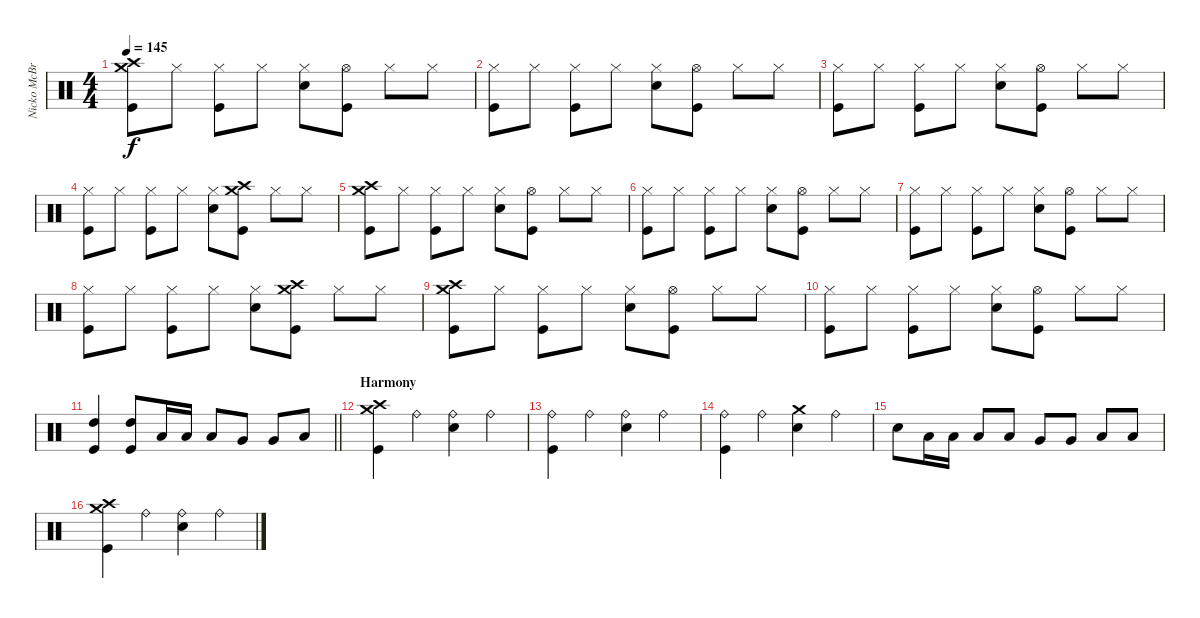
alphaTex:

\track ("Nicko McBrain" "Nicko McBr") {instrument percussion}
\staff {score}
\articulation defaults
\ts (4 4)
\tempo 145
\clef neutral
\ks c
("Crash medium (hit)" "Crash high (hit)" "Kick (hit)").8{dy f} "Hi-Hat (closed)".8 ("Hi-Hat (closed)" "Kick (hit)").8 "Hi-Hat (closed)".8 ("Hi-Hat (closed)" "Snare (hit) 2").8 ("Hi-Hat (open)" "Kick (hit)").8 "Hi-Hat (closed)".8 "Hi-Hat (closed)".8 |
("Hi-Hat (closed)" "Kick (hit)").8 "Hi-Hat (closed)".8 ("Hi-Hat (closed)" "Kick (hit)").8 "Hi-Hat (closed)".8 ("Hi-Hat (closed)" "Snare (hit) 2").8 ("Hi-Hat (open)" "Kick (hit)").8 "Hi-Hat (closed)".8 "Hi-Hat (closed)".8 |
("Hi-Hat (closed)" "Kick (hit)").8 "Hi-Hat (closed)".8 ("Hi-Hat (closed)" "Kick (hit)").8 "Hi-Hat (closed)".8 ("Hi-Hat (closed)" "Snare (hit) 2").8 ("Hi-Hat (open)" "Kick (hit)").8 "Hi-Hat (closed)".8 "Hi-Hat (closed)".8 |
("Hi-Hat (closed)" "Kick (hit)").8 "Hi-Hat (closed)".8 ("Hi-Hat (closed)" "Kick (hit)").8 "Hi-Hat (closed)".8 ("Hi-Hat (closed)" "Snare (hit) 2").8 ("Crash medium (hit)" "Crash high (hit)" "Kick (hit)").8 "Hi-Hat (closed)".8 "Hi-Hat (closed)".8 |
("Crash medium (hit)" "Crash high (hit)" "Kick (hit)").8 "Hi-Hat (closed)".8 ("Hi-Hat (closed)" "Kick (hit)").8 "Hi-Hat (closed)".8 ("Hi-Hat (closed)" "Snare (hit) 2").8 ("Hi-Hat (open)" "Kick (hit)").8 "Hi-Hat (closed)".8 "Hi-Hat (closed)".8 |
("Hi-Hat (closed)" "Kick (hit)").8 "Hi-Hat (closed)".8 ("Hi-Hat (closed)" "Kick (hit)").8 "Hi-Hat (closed)".8 ("Hi-Hat (closed)" "Snare (hit) 2").8 ("Hi-Hat (open)" "Kick (hit)").8 "Hi-Hat (closed)".8 "Hi-Hat (closed)".8 |
("Hi-Hat (closed)" "Kick (hit)").8 "Hi-Hat (closed)".8 ("Hi-Hat (closed)" "Kick (hit)").8 "Hi-Hat (closed)".8 ("Hi-Hat (closed)" "Snare (hit) 2").8 ("Hi-Hat (open)" "Kick (hit)").8 "Hi-Hat (closed)".8 "Hi-Hat (closed)".8 |
("Hi-Hat (closed)" "Kick (hit)").8 "Hi-Hat (closed)".8 ("Hi-Hat (closed)" "Kick (hit)").8 "Hi-Hat (closed)".8 ("Hi-Hat (closed)" "Snare (hit) 2").8 ("Crash medium (hit)" "Crash high (hit)" "Kick (hit)").8 "Hi-Hat (closed)".8 "Hi-Hat (closed)".8 |
("Crash medium (hit)" "Crash high (hit)" "Kick (hit)").8 "Hi-Hat (closed)".8 ("Hi-Hat (closed)" "Kick (hit)").8 "Hi-Hat (closed)".8 ("Hi-Hat (closed)" "Snare (hit) 2").8 ("Hi-Hat (open)" "Kick (hit)").8 "Hi-Hat (closed)".8 "Hi-Hat (closed)".8 |
("Hi-Hat (closed)" "Kick (hit)").8 "Hi-Hat (closed)".8 ("Hi-Hat (closed)" "Kick (hit)").8 "Hi-Hat (closed)".8 ("Hi-Hat (closed)" "Snare (hit) 2").8 ("Hi-Hat (open)" "Kick (hit)").8 "Hi-Hat (closed)".8 "Hi-Hat (closed)".8 |
\barLineRight lightlight
("High Tom (hit)" "Kick (hit)").4 ("High Tom (hit)" "Kick (hit)").8 "Low Tom (hit)".16 "Low Tom (hit)".16 "Low Tom (hit)".8 "Very Low Tom (hit)".8 "Very Low Tom (hit)".8 "Low Floor Tom (hit)".8 |
\section ("" "Harmony")
("Crash medium (hit)" "Crash high (hit)" "Kick (hit)").4 "Ride (bell)".4 ("Ride (bell)" "Snare (hit) 2").4 "Ride (bell)".4 |
("Ride (bell)" "Kick (hit)").4 "Ride (bell)".4 ("Ride (bell)" "Snare (hit) 2").4 "Ride (bell)".4 |
("Ride (bell)" "Kick (hit)").4 "Ride (bell)".4 ("Crash medium (hit)" "Snare (hit) 2").4 "Ride (bell)".4 |
"Snare (hit) 2".8 "Low Tom (hit)".16 "Low Tom (hit)".16 "Low Tom (hit)".8 "Low Tom (hit)".8 "Very Low Tom (hit)".8 "Very Low Tom (hit)".8 "Low Floor Tom (hit)".8 "Low Floor Tom (hit)".8 |
("Crash medium (hit)" "Crash high (hit)" "Kick (hit)").4 "Ride (bell)".4 ("Ride (bell)" "Snare (hit) 2").4 "Ride (bell)".4
